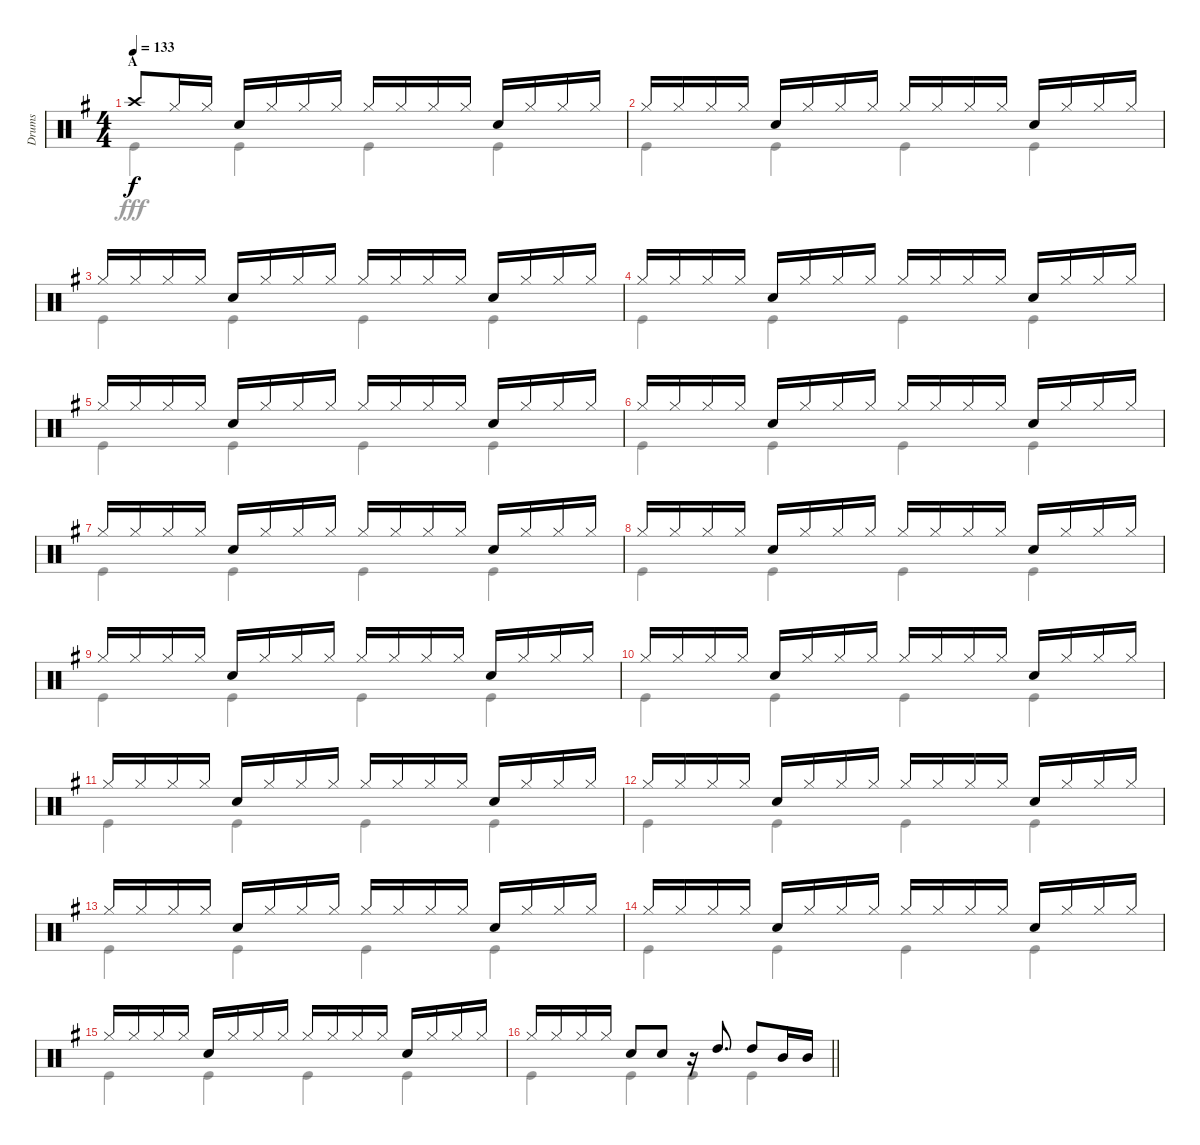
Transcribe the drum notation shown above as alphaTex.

\track ("Drums" "Drums") {instrument percussion}
\staff {score}
\articulation defaults
\voice
\ts (4 4)
\section ("" "A")
\tempo 133
\clef neutral
\ks g "Crash high (hit)".8{dy f} "Hi-Hat (closed)".16 "Hi-Hat (closed)".16 "Snare (hit) 2".16 "Hi-Hat (closed)".16 "Hi-Hat (closed)".16 "Hi-Hat (closed)".16 "Hi-Hat (closed)".16 "Hi-Hat (closed)".16 "Hi-Hat (closed)".16 "Hi-Hat (closed)".16 "Snare (hit) 2".16 "Hi-Hat (closed)".16 "Hi-Hat (closed)".16 "Hi-Hat (closed)".16
|
"Hi-Hat (closed)".16 "Hi-Hat (closed)".16 "Hi-Hat (closed)".16 "Hi-Hat (closed)".16 "Snare (hit) 2".16 "Hi-Hat (closed)".16 "Hi-Hat (closed)".16 "Hi-Hat (closed)".16 "Hi-Hat (closed)".16 "Hi-Hat (closed)".16 "Hi-Hat (closed)".16 "Hi-Hat (closed)".16 "Snare (hit) 2".16 "Hi-Hat (closed)".16 "Hi-Hat (closed)".16 "Hi-Hat (closed)".16 |
"Hi-Hat (closed)".16 "Hi-Hat (closed)".16 "Hi-Hat (closed)".16 "Hi-Hat (closed)".16 "Snare (hit) 2".16 "Hi-Hat (closed)".16 "Hi-Hat (closed)".16 "Hi-Hat (closed)".16 "Hi-Hat (closed)".16 "Hi-Hat (closed)".16 "Hi-Hat (closed)".16 "Hi-Hat (closed)".16 "Snare (hit) 2".16 "Hi-Hat (closed)".16 "Hi-Hat (closed)".16 "Hi-Hat (closed)".16 |
"Hi-Hat (closed)".16 "Hi-Hat (closed)".16 "Hi-Hat (closed)".16 "Hi-Hat (closed)".16 "Snare (hit) 2".16 "Hi-Hat (closed)".16 "Hi-Hat (closed)".16 "Hi-Hat (closed)".16 "Hi-Hat (closed)".16 "Hi-Hat (closed)".16 "Hi-Hat (closed)".16 "Hi-Hat (closed)".16 "Snare (hit) 2".16 "Hi-Hat (closed)".16 "Hi-Hat (closed)".16 "Hi-Hat (closed)".16 |
"Hi-Hat (closed)".16 "Hi-Hat (closed)".16 "Hi-Hat (closed)".16 "Hi-Hat (closed)".16 "Snare (hit) 2".16 "Hi-Hat (closed)".16 "Hi-Hat (closed)".16 "Hi-Hat (closed)".16 "Hi-Hat (closed)".16 "Hi-Hat (closed)".16 "Hi-Hat (closed)".16 "Hi-Hat (closed)".16 "Snare (hit) 2".16 "Hi-Hat (closed)".16 "Hi-Hat (closed)".16 "Hi-Hat (closed)".16 |
"Hi-Hat (closed)".16 "Hi-Hat (closed)".16 "Hi-Hat (closed)".16 "Hi-Hat (closed)".16 "Snare (hit) 2".16 "Hi-Hat (closed)".16 "Hi-Hat (closed)".16 "Hi-Hat (closed)".16 "Hi-Hat (closed)".16 "Hi-Hat (closed)".16 "Hi-Hat (closed)".16 "Hi-Hat (closed)".16 "Snare (hit) 2".16 "Hi-Hat (closed)".16 "Hi-Hat (closed)".16 "Hi-Hat (closed)".16 |
"Hi-Hat (closed)".16 "Hi-Hat (closed)".16 "Hi-Hat (closed)".16 "Hi-Hat (closed)".16 "Snare (hit) 2".16 "Hi-Hat (closed)".16 "Hi-Hat (closed)".16 "Hi-Hat (closed)".16 "Hi-Hat (closed)".16 "Hi-Hat (closed)".16 "Hi-Hat (closed)".16 "Hi-Hat (closed)".16 "Snare (hit) 2".16 "Hi-Hat (closed)".16 "Hi-Hat (closed)".16 "Hi-Hat (closed)".16 |
"Hi-Hat (closed)".16 "Hi-Hat (closed)".16 "Hi-Hat (closed)".16 "Hi-Hat (closed)".16 "Snare (hit) 2".16 "Hi-Hat (closed)".16 "Hi-Hat (closed)".16 "Hi-Hat (closed)".16 "Hi-Hat (closed)".16 "Hi-Hat (closed)".16 "Hi-Hat (closed)".16 "Hi-Hat (closed)".16 "Snare (hit) 2".16 "Hi-Hat (closed)".16 "Hi-Hat (closed)".16 "Hi-Hat (closed)".16 |
"Hi-Hat (closed)".16 "Hi-Hat (closed)".16 "Hi-Hat (closed)".16 "Hi-Hat (closed)".16 "Snare (hit) 2".16 "Hi-Hat (closed)".16 "Hi-Hat (closed)".16 "Hi-Hat (closed)".16 "Hi-Hat (closed)".16 "Hi-Hat (closed)".16 "Hi-Hat (closed)".16 "Hi-Hat (closed)".16 "Snare (hit) 2".16 "Hi-Hat (closed)".16 "Hi-Hat (closed)".16 "Hi-Hat (closed)".16 |
"Hi-Hat (closed)".16 "Hi-Hat (closed)".16 "Hi-Hat (closed)".16 "Hi-Hat (closed)".16 "Snare (hit) 2".16 "Hi-Hat (closed)".16 "Hi-Hat (closed)".16 "Hi-Hat (closed)".16 "Hi-Hat (closed)".16 "Hi-Hat (closed)".16 "Hi-Hat (closed)".16 "Hi-Hat (closed)".16 "Snare (hit) 2".16 "Hi-Hat (closed)".16 "Hi-Hat (closed)".16 "Hi-Hat (closed)".16 |
"Hi-Hat (closed)".16 "Hi-Hat (closed)".16 "Hi-Hat (closed)".16 "Hi-Hat (closed)".16 "Snare (hit) 2".16 "Hi-Hat (closed)".16 "Hi-Hat (closed)".16 "Hi-Hat (closed)".16 "Hi-Hat (closed)".16 "Hi-Hat (closed)".16 "Hi-Hat (closed)".16 "Hi-Hat (closed)".16 "Snare (hit) 2".16 "Hi-Hat (closed)".16 "Hi-Hat (closed)".16 "Hi-Hat (closed)".16 |
"Hi-Hat (closed)".16 "Hi-Hat (closed)".16 "Hi-Hat (closed)".16 "Hi-Hat (closed)".16 "Snare (hit) 2".16 "Hi-Hat (closed)".16 "Hi-Hat (closed)".16 "Hi-Hat (closed)".16 "Hi-Hat (closed)".16 "Hi-Hat (closed)".16 "Hi-Hat (closed)".16 "Hi-Hat (closed)".16 "Snare (hit) 2".16 "Hi-Hat (closed)".16 "Hi-Hat (closed)".16 "Hi-Hat (closed)".16 |
"Hi-Hat (closed)".16 "Hi-Hat (closed)".16 "Hi-Hat (closed)".16 "Hi-Hat (closed)".16 "Snare (hit) 2".16 "Hi-Hat (closed)".16 "Hi-Hat (closed)".16 "Hi-Hat (closed)".16 "Hi-Hat (closed)".16 "Hi-Hat (closed)".16 "Hi-Hat (closed)".16 "Hi-Hat (closed)".16 "Snare (hit) 2".16 "Hi-Hat (closed)".16 "Hi-Hat (closed)".16 "Hi-Hat (closed)".16 |
"Hi-Hat (closed)".16 "Hi-Hat (closed)".16 "Hi-Hat (closed)".16 "Hi-Hat (closed)".16 "Snare (hit) 2".16 "Hi-Hat (closed)".16 "Hi-Hat (closed)".16 "Hi-Hat (closed)".16 "Hi-Hat (closed)".16 "Hi-Hat (closed)".16 "Hi-Hat (closed)".16 "Hi-Hat (closed)".16 "Snare (hit) 2".16 "Hi-Hat (closed)".16 "Hi-Hat (closed)".16 "Hi-Hat (closed)".16 |
"Hi-Hat (closed)".16 "Hi-Hat (closed)".16 "Hi-Hat (closed)".16 "Hi-Hat (closed)".16 "Snare (hit) 2".16 "Hi-Hat (closed)".16 "Hi-Hat (closed)".16 "Hi-Hat (closed)".16 "Hi-Hat (closed)".16 "Hi-Hat (closed)".16 "Hi-Hat (closed)".16 "Hi-Hat (closed)".16 "Snare (hit) 2".16 "Hi-Hat (closed)".16 "Hi-Hat (closed)".16 "Hi-Hat (closed)".16 |
\barLineRight lightlight "Hi-Hat (closed)".16 "Hi-Hat (closed)".16 "Hi-Hat (closed)".16 "Hi-Hat (closed)".16 "Snare (hit) 2".8 "Snare (hit) 2".8
r.16 "High Tom (hit)".8{d} "High Tom (hit)".8 "Mid Tom (hit)".16 "Mid Tom (hit)".16
\voice
\clef neutral
\ottava regular
\simile none
\ks g "Kick (hit)".4{dy fff} "Kick (hit)".4 "Kick (hit)".4 "Kick (hit)".4
|
"Kick (hit)".4 "Kick (hit)".4 "Kick (hit)".4 "Kick (hit)".4 |
"Kick (hit)".4 "Kick (hit)".4 "Kick (hit)".4 "Kick (hit)".4 |
"Kick (hit)".4 "Kick (hit)".4 "Kick (hit)".4 "Kick (hit)".4 |
"Kick (hit)".4 "Kick (hit)".4 "Kick (hit)".4 "Kick (hit)".4 |
"Kick (hit)".4 "Kick (hit)".4 "Kick (hit)".4 "Kick (hit)".4 |
"Kick (hit)".4 "Kick (hit)".4 "Kick (hit)".4 "Kick (hit)".4 |
"Kick (hit)".4 "Kick (hit)".4 "Kick (hit)".4 "Kick (hit)".4 |
"Kick (hit)".4 "Kick (hit)".4 "Kick (hit)".4 "Kick (hit)".4 |
"Kick (hit)".4 "Kick (hit)".4 "Kick (hit)".4 "Kick (hit)".4 |
"Kick (hit)".4 "Kick (hit)".4 "Kick (hit)".4 "Kick (hit)".4 |
"Kick (hit)".4 "Kick (hit)".4 "Kick (hit)".4 "Kick (hit)".4 |
"Kick (hit)".4 "Kick (hit)".4 "Kick (hit)".4 "Kick (hit)".4 |
"Kick (hit)".4 "Kick (hit)".4 "Kick (hit)".4 "Kick (hit)".4 |
"Kick (hit)".4 "Kick (hit)".4 "Kick (hit)".4 "Kick (hit)".4 |
\barLineRight lightlight "Kick (hit)".4 "Kick (hit)".4 "Kick (hit)".4 "Kick (hit)".4
